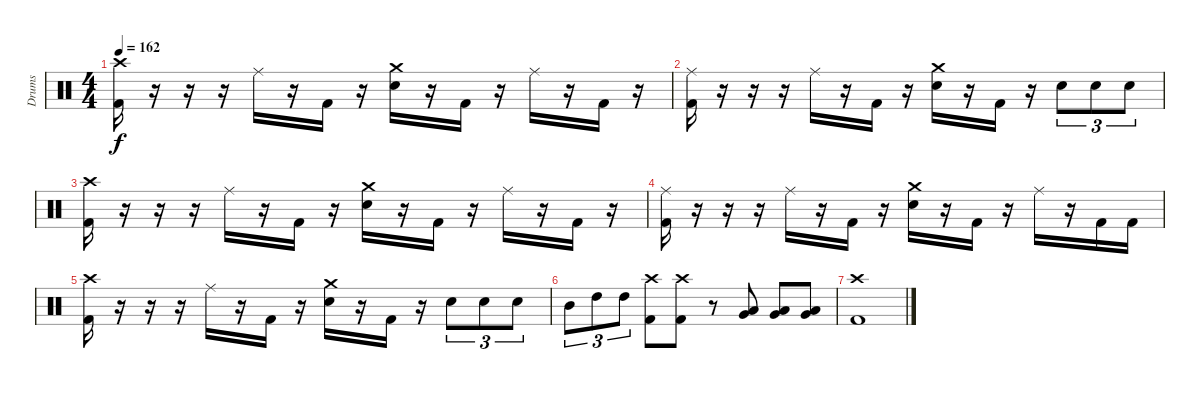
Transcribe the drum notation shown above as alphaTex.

\track ("Drums" "Drums") {instrument percussion}
\staff {score}
\articulation defaults
\ts (4 4)
\tempo 162
\clef neutral
\ks c
("Crash high (hit)" "Kick (hit) 2").16{dy f} r.16 r.16 r.16 "Ride (middle)".16 r.16 "Kick (hit) 2".16 r.16 ("Crash medium (hit)" "Snare (hit) 2").16 r.16 "Kick (hit) 2".16 r.16 "Ride (middle)".16 r.16 "Kick (hit) 2".16 r.16 |
("Ride (middle)" "Kick (hit) 2").16 r.16 r.16 r.16 "Ride (middle)".16 r.16 "Kick (hit) 2".16 r.16 ("Crash medium (hit)" "Snare (hit) 2").16 r.16 "Kick (hit) 2".16 r.16 "Snare (hit) 2".8{tu (3 2)} "Snare (hit) 2".8{tu (3 2)} "Snare (hit) 2".8{tu (3 2)} |
("Crash high (hit)" "Kick (hit) 2").16 r.16 r.16 r.16 "Ride (middle)".16 r.16 "Kick (hit) 2".16 r.16 ("Crash medium (hit)" "Snare (hit) 2").16 r.16 "Kick (hit) 2".16 r.16 "Ride (middle)".16 r.16 "Kick (hit) 2".16 r.16 |
("Ride (middle)" "Kick (hit) 2").16 r.16 r.16 r.16 "Ride (middle)".16 r.16 "Kick (hit) 2".16 r.16 ("Crash medium (hit)" "Snare (hit) 2").16 r.16 "Kick (hit) 2".16 r.16 "Ride (middle)".16 r.16 "Kick (hit) 2".16 "Kick (hit) 2".16 |
("Crash high (hit)" "Kick (hit) 2").16 r.16 r.16 r.16 "Ride (middle)".16 r.16 "Kick (hit) 2".16 r.16 ("Crash medium (hit)" "Snare (hit) 2").16 r.16 "Kick (hit) 2".16 r.16 "Snare (hit) 2".8{tu (3 2)} "Snare (hit) 2".8{tu (3 2)} "Snare (hit) 2".8{tu (3 2)} |
"Mid Tom (hit)".8{tu (3 2)} "High Tom (hit)".8{tu (3 2)} "High Tom (hit)".8{tu (3 2)} ("Crash high (hit)" "Kick (hit) 2").8 ("Crash high (hit)" "Kick (hit) 2").8 r.8 ("Very Low Tom (hit)" "Low Tom (hit)").8 ("Very Low Tom (hit)" "Low Tom (hit)").8 ("Very Low Tom (hit)" "Low Tom (hit)").8 |
("Crash high (hit)" "Kick (hit) 2").1
